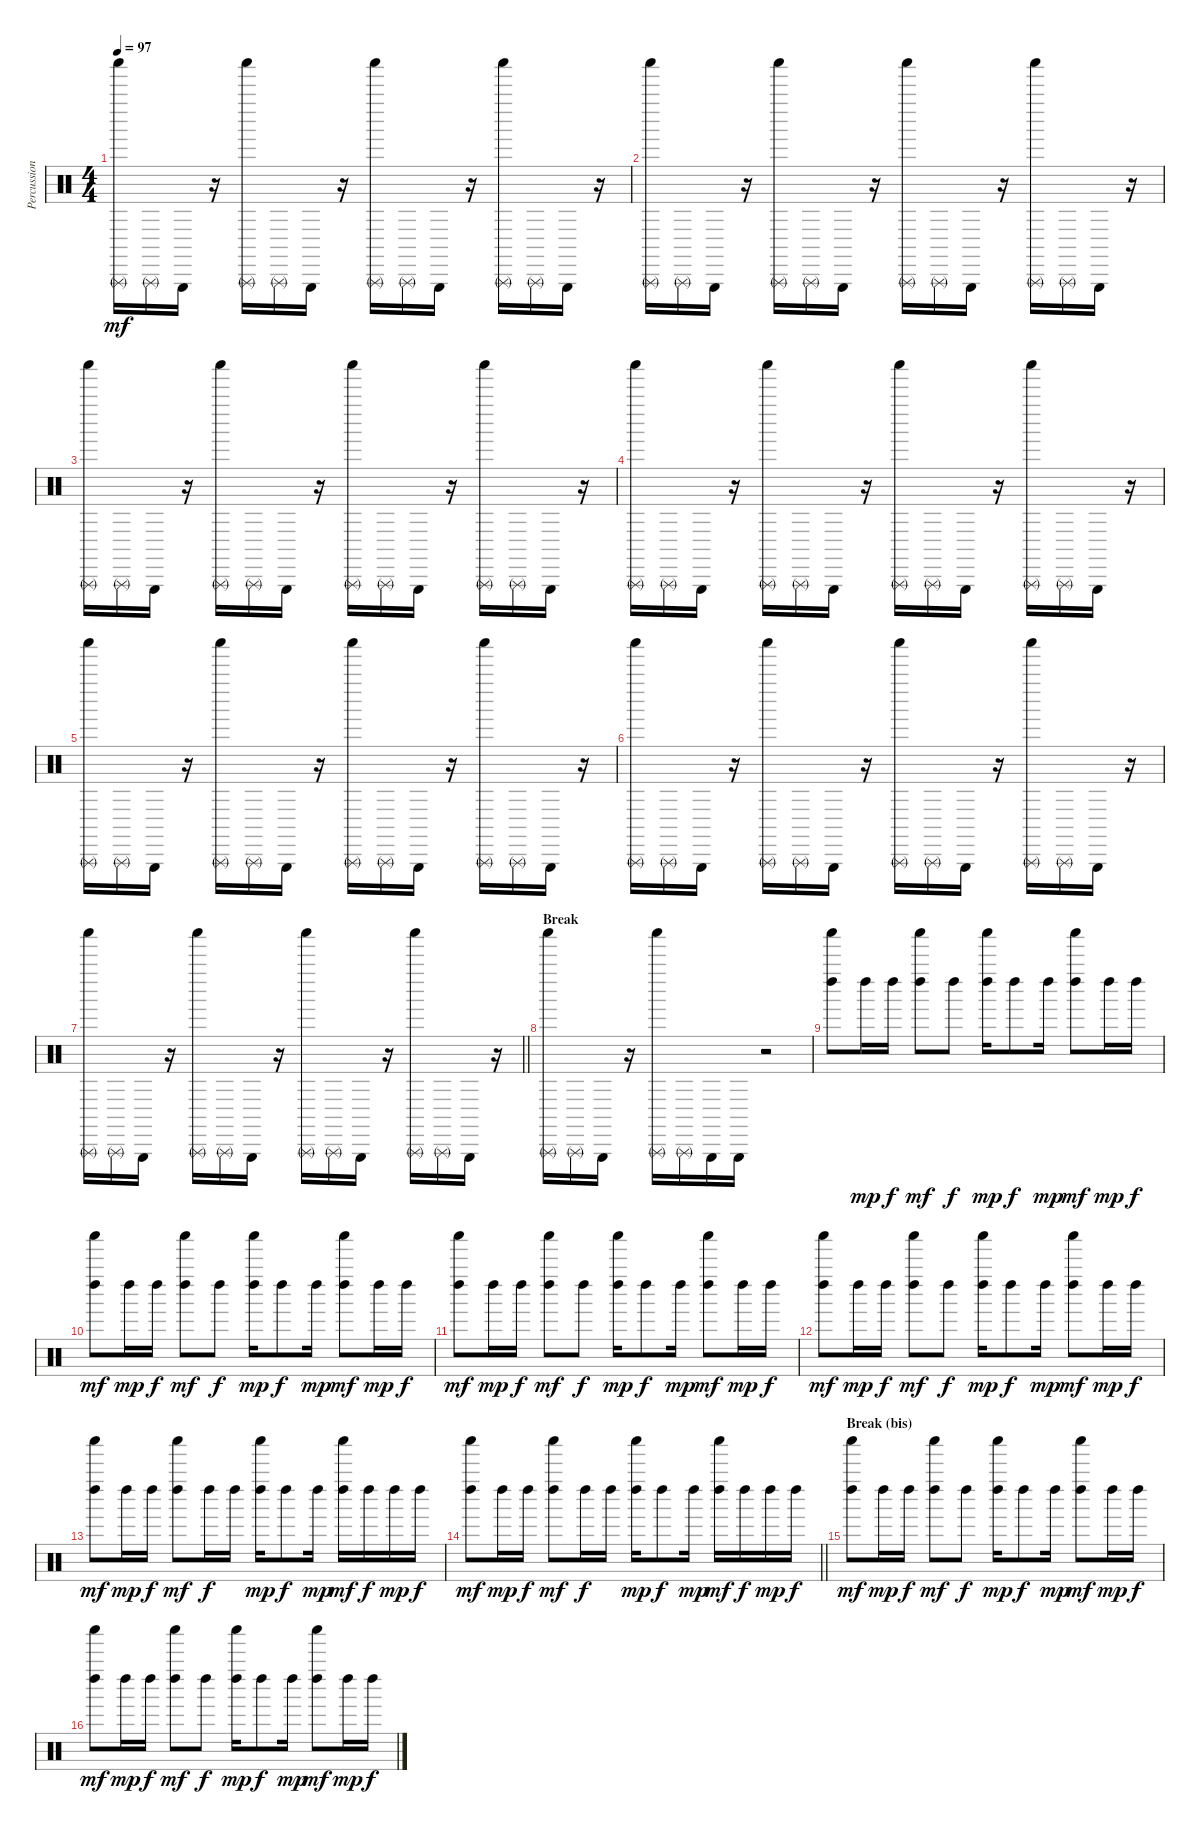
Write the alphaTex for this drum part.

\track ("Percussions" "Percussion") {instrument percussion}
\staff {score}
\articulation defaults
\ts (4 4)
\tempo 97
\clef neutral
\ks c
("Triangle (rnute)" "Shaker (hit)").16{dy mf} "Triangle (rnute)".16 "Triangle (hit)".16 r.16 ("Triangle (rnute)" "Shaker (hit)").16 "Triangle (rnute)".16 "Triangle (hit)".16 r.16 ("Triangle (rnute)" "Shaker (hit)").16 "Triangle (rnute)".16 "Triangle (hit)".16 r.16 ("Triangle (rnute)" "Shaker (hit)").16 "Triangle (rnute)".16 "Triangle (hit)".16 r.16 |
("Triangle (rnute)" "Shaker (hit)").16 "Triangle (rnute)".16 "Triangle (hit)".16 r.16 ("Triangle (rnute)" "Shaker (hit)").16 "Triangle (rnute)".16 "Triangle (hit)".16 r.16 ("Triangle (rnute)" "Shaker (hit)").16 "Triangle (rnute)".16 "Triangle (hit)".16 r.16 ("Triangle (rnute)" "Shaker (hit)").16 "Triangle (rnute)".16 "Triangle (hit)".16 r.16 |
("Triangle (rnute)" "Shaker (hit)").16 "Triangle (rnute)".16 "Triangle (hit)".16 r.16 ("Triangle (rnute)" "Shaker (hit)").16 "Triangle (rnute)".16 "Triangle (hit)".16 r.16 ("Triangle (rnute)" "Shaker (hit)").16 "Triangle (rnute)".16 "Triangle (hit)".16 r.16 ("Triangle (rnute)" "Shaker (hit)").16 "Triangle (rnute)".16 "Triangle (hit)".16 r.16 |
("Triangle (rnute)" "Shaker (hit)").16 "Triangle (rnute)".16 "Triangle (hit)".16 r.16 ("Triangle (rnute)" "Shaker (hit)").16 "Triangle (rnute)".16 "Triangle (hit)".16 r.16 ("Triangle (rnute)" "Shaker (hit)").16 "Triangle (rnute)".16 "Triangle (hit)".16 r.16 ("Triangle (rnute)" "Shaker (hit)").16 "Triangle (rnute)".16 "Triangle (hit)".16 r.16 |
("Triangle (rnute)" "Shaker (hit)").16 "Triangle (rnute)".16 "Triangle (hit)".16 r.16 ("Triangle (rnute)" "Shaker (hit)").16 "Triangle (rnute)".16 "Triangle (hit)".16 r.16 ("Triangle (rnute)" "Shaker (hit)").16 "Triangle (rnute)".16 "Triangle (hit)".16 r.16 ("Triangle (rnute)" "Shaker (hit)").16 "Triangle (rnute)".16 "Triangle (hit)".16 r.16 |
("Triangle (rnute)" "Shaker (hit)").16 "Triangle (rnute)".16 "Triangle (hit)".16 r.16 ("Triangle (rnute)" "Shaker (hit)").16 "Triangle (rnute)".16 "Triangle (hit)".16 r.16 ("Triangle (rnute)" "Shaker (hit)").16 "Triangle (rnute)".16 "Triangle (hit)".16 r.16 ("Triangle (rnute)" "Shaker (hit)").16 "Triangle (rnute)".16 "Triangle (hit)".16 r.16 |
\barLineRight lightlight
("Triangle (rnute)" "Shaker (hit)").16 "Triangle (rnute)".16 "Triangle (hit)".16 r.16 ("Triangle (rnute)" "Shaker (hit)").16 "Triangle (rnute)".16 "Triangle (hit)".16 r.16 ("Triangle (rnute)" "Shaker (hit)").16 "Triangle (rnute)".16 "Triangle (hit)".16 r.16 ("Triangle (rnute)" "Shaker (hit)").16 "Triangle (rnute)".16 "Triangle (hit)".16 r.16 |
\section ("" "Break")
("Triangle (rnute)" "Shaker (hit)").16 "Triangle (rnute)".16 "Triangle (hit)".16 r.16 ("Triangle (rnute)" "Shaker (hit)").16 "Triangle (rnute)".16 "Triangle (hit)".16 "Triangle (hit)".16 r.2 |
("Shaker (hit)" "Left Maraca (hit)").8 "Left Maraca (hit)".16{dy mp} "Left Maraca (hit)".16{dy f} ("Shaker (hit)" "Left Maraca (hit)").8{dy mf} "Left Maraca (hit)".8{dy f} ("Shaker (hit)" "Left Maraca (hit)").16{dy mp} "Left Maraca (hit)".8{dy f} "Left Maraca (hit)".16{dy mp} ("Shaker (hit)" "Left Maraca (hit)").8{dy mf} "Left Maraca (hit)".16{dy mp} "Left Maraca (hit)".16{dy f} |
("Shaker (hit)" "Left Maraca (hit)").8{dy mf} "Left Maraca (hit)".16{dy mp} "Left Maraca (hit)".16{dy f} ("Shaker (hit)" "Left Maraca (hit)").8{dy mf} "Left Maraca (hit)".8{dy f} ("Shaker (hit)" "Left Maraca (hit)").16{dy mp} "Left Maraca (hit)".8{dy f} "Left Maraca (hit)".16{dy mp} ("Shaker (hit)" "Left Maraca (hit)").8{dy mf} "Left Maraca (hit)".16{dy mp} "Left Maraca (hit)".16{dy f} |
("Shaker (hit)" "Left Maraca (hit)").8{dy mf} "Left Maraca (hit)".16{dy mp} "Left Maraca (hit)".16{dy f} ("Shaker (hit)" "Left Maraca (hit)").8{dy mf} "Left Maraca (hit)".8{dy f} ("Shaker (hit)" "Left Maraca (hit)").16{dy mp} "Left Maraca (hit)".8{dy f} "Left Maraca (hit)".16{dy mp} ("Shaker (hit)" "Left Maraca (hit)").8{dy mf} "Left Maraca (hit)".16{dy mp} "Left Maraca (hit)".16{dy f} |
("Shaker (hit)" "Left Maraca (hit)").8{dy mf} "Left Maraca (hit)".16{dy mp} "Left Maraca (hit)".16{dy f} ("Shaker (hit)" "Left Maraca (hit)").8{dy mf} "Left Maraca (hit)".8{dy f} ("Shaker (hit)" "Left Maraca (hit)").16{dy mp} "Left Maraca (hit)".8{dy f} "Left Maraca (hit)".16{dy mp} ("Shaker (hit)" "Left Maraca (hit)").8{dy mf} "Left Maraca (hit)".16{dy mp} "Left Maraca (hit)".16{dy f} |
("Shaker (hit)" "Left Maraca (hit)").8{dy mf} "Left Maraca (hit)".16{dy mp} "Left Maraca (hit)".16{dy f} ("Shaker (hit)" "Left Maraca (hit)").8{dy mf} "Left Maraca (hit)".16{dy f} "Left Maraca (hit)".16 ("Shaker (hit)" "Left Maraca (hit)").16{dy mp} "Left Maraca (hit)".8{dy f} "Left Maraca (hit)".16{dy mp} ("Shaker (hit)" "Left Maraca (hit)").16{dy mf} "Left Maraca (hit)".16{dy f} "Left Maraca (hit)".16{dy mp} "Left Maraca (hit)".16{dy f} |
\barLineRight lightlight
("Shaker (hit)" "Left Maraca (hit)").8{dy mf} "Left Maraca (hit)".16{dy mp} "Left Maraca (hit)".16{dy f} ("Shaker (hit)" "Left Maraca (hit)").8{dy mf} "Left Maraca (hit)".16{dy f} "Left Maraca (hit)".16 ("Shaker (hit)" "Left Maraca (hit)").16{dy mp} "Left Maraca (hit)".8{dy f} "Left Maraca (hit)".16{dy mp} ("Shaker (hit)" "Left Maraca (hit)").16{dy mf} "Left Maraca (hit)".16{dy f} "Left Maraca (hit)".16{dy mp} "Left Maraca (hit)".16{dy f} |
\section ("" "Break (bis)")
("Shaker (hit)" "Left Maraca (hit)").8{dy mf} "Left Maraca (hit)".16{dy mp} "Left Maraca (hit)".16{dy f} ("Shaker (hit)" "Left Maraca (hit)").8{dy mf} "Left Maraca (hit)".8{dy f} ("Shaker (hit)" "Left Maraca (hit)").16{dy mp} "Left Maraca (hit)".8{dy f} "Left Maraca (hit)".16{dy mp} ("Shaker (hit)" "Left Maraca (hit)").8{dy mf} "Left Maraca (hit)".16{dy mp} "Left Maraca (hit)".16{dy f} |
("Shaker (hit)" "Left Maraca (hit)").8{dy mf} "Left Maraca (hit)".16{dy mp} "Left Maraca (hit)".16{dy f} ("Shaker (hit)" "Left Maraca (hit)").8{dy mf} "Left Maraca (hit)".8{dy f} ("Shaker (hit)" "Left Maraca (hit)").16{dy mp} "Left Maraca (hit)".8{dy f} "Left Maraca (hit)".16{dy mp} ("Shaker (hit)" "Left Maraca (hit)").8{dy mf} "Left Maraca (hit)".16{dy mp} "Left Maraca (hit)".16{dy f}
